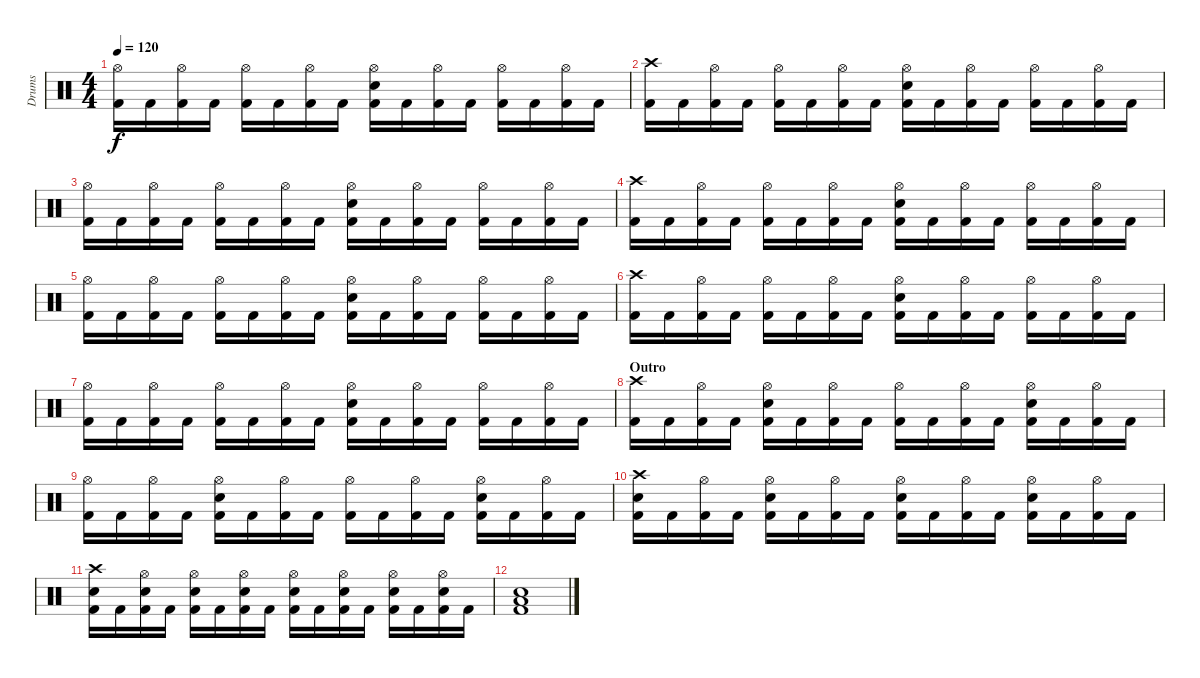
\track ("Drums" "Drums") {instrument percussion}
\staff {score}
\articulation defaults
\ts (4 4)
\tempo 120
\clef neutral
\ks c
("Hi-Hat (open)" "Kick (hit) 2").16{dy f} "Kick (hit) 2".16 ("Hi-Hat (open)" "Kick (hit) 2").16 "Kick (hit) 2".16 ("Hi-Hat (open)" "Kick (hit) 2").16 "Kick (hit) 2".16 ("Hi-Hat (open)" "Kick (hit) 2").16 "Kick (hit) 2".16 ("Hi-Hat (open)" "Electric Snare (hit)" "Kick (hit) 2").16 "Kick (hit) 2".16 ("Hi-Hat (open)" "Kick (hit) 2").16 "Kick (hit) 2".16 ("Hi-Hat (open)" "Kick (hit) 2").16 "Kick (hit) 2".16 ("Hi-Hat (open)" "Kick (hit) 2").16 "Kick (hit) 2".16 |
("Crash high (hit)" "Kick (hit) 2").16 "Kick (hit) 2".16 ("Hi-Hat (open)" "Kick (hit) 2").16 "Kick (hit) 2".16 ("Hi-Hat (open)" "Kick (hit) 2").16 "Kick (hit) 2".16 ("Hi-Hat (open)" "Kick (hit) 2").16 "Kick (hit) 2".16 ("Hi-Hat (open)" "Electric Snare (hit)" "Kick (hit) 2").16 "Kick (hit) 2".16 ("Hi-Hat (open)" "Kick (hit) 2").16 "Kick (hit) 2".16 ("Hi-Hat (open)" "Kick (hit) 2").16 "Kick (hit) 2".16 ("Hi-Hat (open)" "Kick (hit) 2").16 "Kick (hit) 2".16 |
("Hi-Hat (open)" "Kick (hit) 2").16 "Kick (hit) 2".16 ("Hi-Hat (open)" "Kick (hit) 2").16 "Kick (hit) 2".16 ("Hi-Hat (open)" "Kick (hit) 2").16 "Kick (hit) 2".16 ("Hi-Hat (open)" "Kick (hit) 2").16 "Kick (hit) 2".16 ("Hi-Hat (open)" "Electric Snare (hit)" "Kick (hit) 2").16 "Kick (hit) 2".16 ("Hi-Hat (open)" "Kick (hit) 2").16 "Kick (hit) 2".16 ("Hi-Hat (open)" "Kick (hit) 2").16 "Kick (hit) 2".16 ("Hi-Hat (open)" "Kick (hit) 2").16 "Kick (hit) 2".16 |
("Crash high (hit)" "Kick (hit) 2").16 "Kick (hit) 2".16 ("Hi-Hat (open)" "Kick (hit) 2").16 "Kick (hit) 2".16 ("Hi-Hat (open)" "Kick (hit) 2").16 "Kick (hit) 2".16 ("Hi-Hat (open)" "Kick (hit) 2").16 "Kick (hit) 2".16 ("Hi-Hat (open)" "Electric Snare (hit)" "Kick (hit) 2").16 "Kick (hit) 2".16 ("Hi-Hat (open)" "Kick (hit) 2").16 "Kick (hit) 2".16 ("Hi-Hat (open)" "Kick (hit) 2").16 "Kick (hit) 2".16 ("Hi-Hat (open)" "Kick (hit) 2").16 "Kick (hit) 2".16 |
("Hi-Hat (open)" "Kick (hit) 2").16 "Kick (hit) 2".16 ("Hi-Hat (open)" "Kick (hit) 2").16 "Kick (hit) 2".16 ("Hi-Hat (open)" "Kick (hit) 2").16 "Kick (hit) 2".16 ("Hi-Hat (open)" "Kick (hit) 2").16 "Kick (hit) 2".16 ("Hi-Hat (open)" "Electric Snare (hit)" "Kick (hit) 2").16 "Kick (hit) 2".16 ("Hi-Hat (open)" "Kick (hit) 2").16 "Kick (hit) 2".16 ("Hi-Hat (open)" "Kick (hit) 2").16 "Kick (hit) 2".16 ("Hi-Hat (open)" "Kick (hit) 2").16 "Kick (hit) 2".16 |
("Crash high (hit)" "Kick (hit) 2").16 "Kick (hit) 2".16 ("Hi-Hat (open)" "Kick (hit) 2").16 "Kick (hit) 2".16 ("Hi-Hat (open)" "Kick (hit) 2").16 "Kick (hit) 2".16 ("Hi-Hat (open)" "Kick (hit) 2").16 "Kick (hit) 2".16 ("Hi-Hat (open)" "Electric Snare (hit)" "Kick (hit) 2").16 "Kick (hit) 2".16 ("Hi-Hat (open)" "Kick (hit) 2").16 "Kick (hit) 2".16 ("Hi-Hat (open)" "Kick (hit) 2").16 "Kick (hit) 2".16 ("Hi-Hat (open)" "Kick (hit) 2").16 "Kick (hit) 2".16 |
("Hi-Hat (open)" "Kick (hit) 2").16 "Kick (hit) 2".16 ("Hi-Hat (open)" "Kick (hit) 2").16 "Kick (hit) 2".16 ("Hi-Hat (open)" "Kick (hit) 2").16 "Kick (hit) 2".16 ("Hi-Hat (open)" "Kick (hit) 2").16 "Kick (hit) 2".16 ("Hi-Hat (open)" "Electric Snare (hit)" "Kick (hit) 2").16 "Kick (hit) 2".16 ("Hi-Hat (open)" "Kick (hit) 2").16 "Kick (hit) 2".16 ("Hi-Hat (open)" "Kick (hit) 2").16 "Kick (hit) 2".16 ("Hi-Hat (open)" "Kick (hit) 2").16 "Kick (hit) 2".16 |
\section ("" "Outro")
("Crash high (hit)" "Kick (hit) 2").16 "Kick (hit) 2".16 ("Hi-Hat (open)" "Kick (hit) 2").16 "Kick (hit) 2".16 ("Hi-Hat (open)" "Electric Snare (hit)" "Kick (hit) 2").16 "Kick (hit) 2".16 ("Hi-Hat (open)" "Kick (hit) 2").16 "Kick (hit) 2".16 ("Hi-Hat (open)" "Kick (hit) 2").16 "Kick (hit) 2".16 ("Hi-Hat (open)" "Kick (hit) 2").16 "Kick (hit) 2".16 ("Hi-Hat (open)" "Electric Snare (hit)" "Kick (hit) 2").16 "Kick (hit) 2".16 ("Hi-Hat (open)" "Kick (hit) 2").16 "Kick (hit) 2".16 |
("Hi-Hat (open)" "Kick (hit) 2").16 "Kick (hit) 2".16 ("Hi-Hat (open)" "Kick (hit) 2").16 "Kick (hit) 2".16 ("Hi-Hat (open)" "Electric Snare (hit)" "Kick (hit) 2").16 "Kick (hit) 2".16 ("Hi-Hat (open)" "Kick (hit) 2").16 "Kick (hit) 2".16 ("Hi-Hat (open)" "Kick (hit) 2").16 "Kick (hit) 2".16 ("Hi-Hat (open)" "Kick (hit) 2").16 "Kick (hit) 2".16 ("Hi-Hat (open)" "Electric Snare (hit)" "Kick (hit) 2").16 "Kick (hit) 2".16 ("Hi-Hat (open)" "Kick (hit) 2").16 "Kick (hit) 2".16 |
("Crash high (hit)" "Electric Snare (hit)" "Kick (hit) 2").16 "Kick (hit) 2".16 ("Hi-Hat (open)" "Kick (hit) 2").16 "Kick (hit) 2".16 ("Hi-Hat (open)" "Electric Snare (hit)" "Kick (hit) 2").16 "Kick (hit) 2".16 ("Hi-Hat (open)" "Kick (hit) 2").16 "Kick (hit) 2".16 ("Hi-Hat (open)" "Electric Snare (hit)" "Kick (hit) 2").16 "Kick (hit) 2".16 ("Hi-Hat (open)" "Kick (hit) 2").16 "Kick (hit) 2".16 ("Hi-Hat (open)" "Electric Snare (hit)" "Kick (hit) 2").16 "Kick (hit) 2".16 ("Hi-Hat (open)" "Kick (hit) 2").16 "Kick (hit) 2".16 |
("Crash high (hit)" "Electric Snare (hit)" "Kick (hit) 2").16 "Kick (hit) 2".16 ("Hi-Hat (open)" "Electric Snare (hit)" "Kick (hit) 2").16 "Kick (hit) 2".16 ("Hi-Hat (open)" "Electric Snare (hit)" "Kick (hit) 2").16 "Kick (hit) 2".16 ("Hi-Hat (open)" "Electric Snare (hit)" "Kick (hit) 2").16 "Kick (hit) 2".16 ("Hi-Hat (open)" "Electric Snare (hit)" "Kick (hit) 2").16 "Kick (hit) 2".16 ("Hi-Hat (open)" "Electric Snare (hit)" "Kick (hit) 2").16 "Kick (hit) 2".16 ("Hi-Hat (open)" "Electric Snare (hit)" "Kick (hit) 2").16 "Kick (hit) 2".16 ("Hi-Hat (open)" "Electric Snare (hit)" "Kick (hit) 2").16 "Kick (hit) 2".16 |
("Electric Snare (hit)" "Low Floor Tom (hit)" "Kick (hit) 2").1
